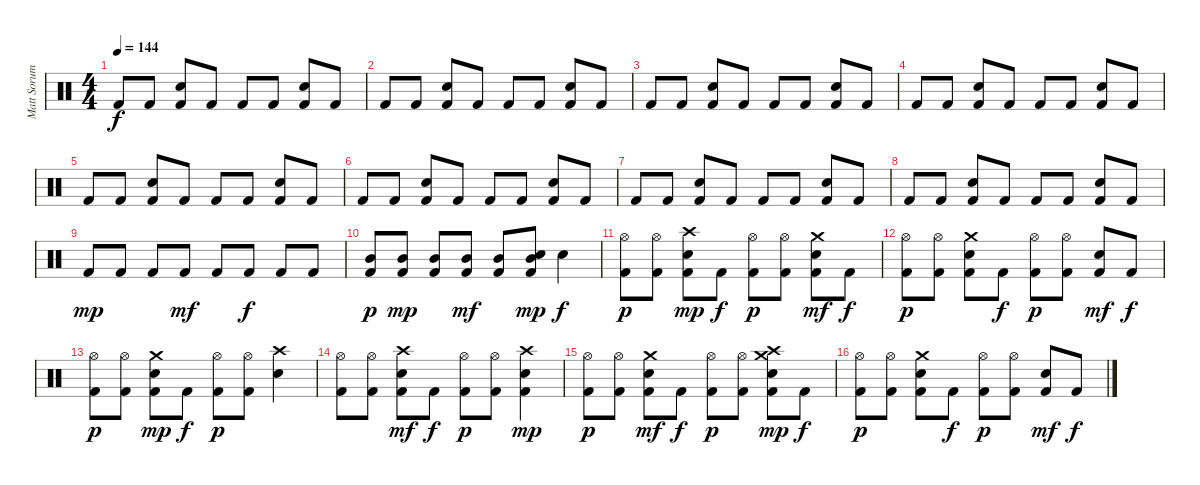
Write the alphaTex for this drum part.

\track ("Matt Sorum" "Matt Sorum") {instrument percussion}
\staff {score}
\articulation defaults
\ts (4 4)
\tempo 144
\clef neutral
\ks c "Kick (hit) 2".8{dy f} "Kick (hit) 2".8
("Kick (hit) 2" "Snare (hit) 2").8 "Kick (hit) 2".8 "Kick (hit) 2".8 "Kick (hit) 2".8 ("Kick (hit) 2" "Snare (hit) 2").8 "Kick (hit) 2".8 |
"Kick (hit) 2".8 "Kick (hit) 2".8 ("Kick (hit) 2" "Snare (hit) 2").8 "Kick (hit) 2".8 "Kick (hit) 2".8 "Kick (hit) 2".8 ("Kick (hit) 2" "Snare (hit) 2").8 "Kick (hit) 2".8 |
"Kick (hit) 2".8 "Kick (hit) 2".8 ("Kick (hit) 2" "Snare (hit) 2").8 "Kick (hit) 2".8 "Kick (hit) 2".8 "Kick (hit) 2".8 ("Kick (hit) 2" "Snare (hit) 2").8 "Kick (hit) 2".8 |
"Kick (hit) 2".8 "Kick (hit) 2".8 ("Kick (hit) 2" "Snare (hit) 2").8 "Kick (hit) 2".8 "Kick (hit) 2".8 "Kick (hit) 2".8 ("Kick (hit) 2" "Snare (hit) 2").8 "Kick (hit) 2".8 |
"Kick (hit) 2".8 "Kick (hit) 2".8 ("Kick (hit) 2" "Snare (hit) 2").8 "Kick (hit) 2".8 "Kick (hit) 2".8 "Kick (hit) 2".8 ("Kick (hit) 2" "Snare (hit) 2").8 "Kick (hit) 2".8 |
"Kick (hit) 2".8 "Kick (hit) 2".8 ("Kick (hit) 2" "Snare (hit) 2").8 "Kick (hit) 2".8 "Kick (hit) 2".8 "Kick (hit) 2".8 ("Kick (hit) 2" "Snare (hit) 2").8 "Kick (hit) 2".8 |
"Kick (hit) 2".8 "Kick (hit) 2".8 ("Kick (hit) 2" "Snare (hit) 2").8 "Kick (hit) 2".8 "Kick (hit) 2".8 "Kick (hit) 2".8 ("Kick (hit) 2" "Snare (hit) 2").8 "Kick (hit) 2".8 |
"Kick (hit) 2".8 "Kick (hit) 2".8 ("Kick (hit) 2" "Snare (hit) 2").8 "Kick (hit) 2".8 "Kick (hit) 2".8 "Kick (hit) 2".8 ("Kick (hit) 2" "Snare (hit) 2").8 "Kick (hit) 2".8 |
"Kick (hit) 2".8{dy mp} "Kick (hit) 2".8 "Kick (hit) 2".8 "Kick (hit) 2".8{dy mf} "Kick (hit) 2".8 "Kick (hit) 2".8{dy f} "Kick (hit) 2".8 "Kick (hit) 2".8 |
("Kick (hit) 2" "Mid Tom (hit)").8{dy p} ("Kick (hit) 2" "Mid Tom (hit)").8{dy mp} ("Kick (hit) 2" "Mid Tom (hit)").8 ("Kick (hit) 2" "Mid Tom (hit)").8{dy mf} ("Kick (hit) 2" "Mid Tom (hit)").8 ("Kick (hit) 2" "Snare (hit) 2" "Mid Tom (hit)").8{dy mp} "Snare (hit) 2".4{dy f} |
("Kick (hit) 2" "Hi-Hat (open)").8{dy p} ("Kick (hit) 2" "Hi-Hat (open)").8 ("Kick (hit) 2" "Snare (hit) 2" "Crash high (hit)").8{dy mp} "Kick (hit) 2".8{dy f} ("Kick (hit) 2" "Hi-Hat (open)").8{dy p} ("Kick (hit) 2" "Hi-Hat (open)").8 ("Kick (hit) 2" "Snare (hit) 2" "Crash medium (hit)").8{dy mf} "Kick (hit) 2".8{dy f} |
("Kick (hit) 2" "Hi-Hat (open)").8{dy p} ("Kick (hit) 2" "Hi-Hat (open)").8 ("Kick (hit) 2" "Snare (hit) 2" "Crash medium (hit)").8 "Kick (hit) 2".8{dy f} ("Kick (hit) 2" "Hi-Hat (open)").8{dy p} ("Kick (hit) 2" "Hi-Hat (open)").8 ("Kick (hit) 2" "Snare (hit) 2").8{dy mf} "Kick (hit) 2".8{dy f} |
("Kick (hit) 2" "Hi-Hat (open)").8{dy p} ("Kick (hit) 2" "Hi-Hat (open)").8 ("Kick (hit) 2" "Snare (hit) 2" "Crash medium (hit)").8{dy mp} "Kick (hit) 2".8{dy f} ("Kick (hit) 2" "Hi-Hat (open)").8{dy p} ("Kick (hit) 2" "Hi-Hat (open)").8 ("Snare (hit) 2" "Crash high (hit)").4 |
("Kick (hit) 2" "Hi-Hat (open)").8 ("Kick (hit) 2" "Hi-Hat (open)").8 ("Kick (hit) 2" "Snare (hit) 2" "Crash high (hit)").8{dy mf} "Kick (hit) 2".8{dy f} ("Kick (hit) 2" "Hi-Hat (open)").8{dy p} ("Kick (hit) 2" "Hi-Hat (open)").8 ("Kick (hit) 2" "Snare (hit) 2" "Crash high (hit)").4{dy mp} |
("Kick (hit) 2" "Hi-Hat (open)").8{dy p} ("Kick (hit) 2" "Hi-Hat (open)").8 ("Kick (hit) 2" "Snare (hit) 2" "Crash medium (hit)").8{dy mf} "Kick (hit) 2".8{dy f} ("Kick (hit) 2" "Hi-Hat (open)").8{dy p} ("Kick (hit) 2" "Hi-Hat (open)").8 ("Kick (hit) 2" "Snare (hit) 2" "Crash high (hit)" "Crash medium (hit)").8{dy mp} "Kick (hit) 2".8{dy f} |
("Kick (hit) 2" "Hi-Hat (open)").8{dy p} ("Kick (hit) 2" "Hi-Hat (open)").8 ("Kick (hit) 2" "Snare (hit) 2" "Crash medium (hit)").8 "Kick (hit) 2".8{dy f} ("Kick (hit) 2" "Hi-Hat (open)").8{dy p} ("Kick (hit) 2" "Hi-Hat (open)").8 ("Kick (hit) 2" "Snare (hit) 2").8{dy mf} "Kick (hit) 2".8{dy f}
